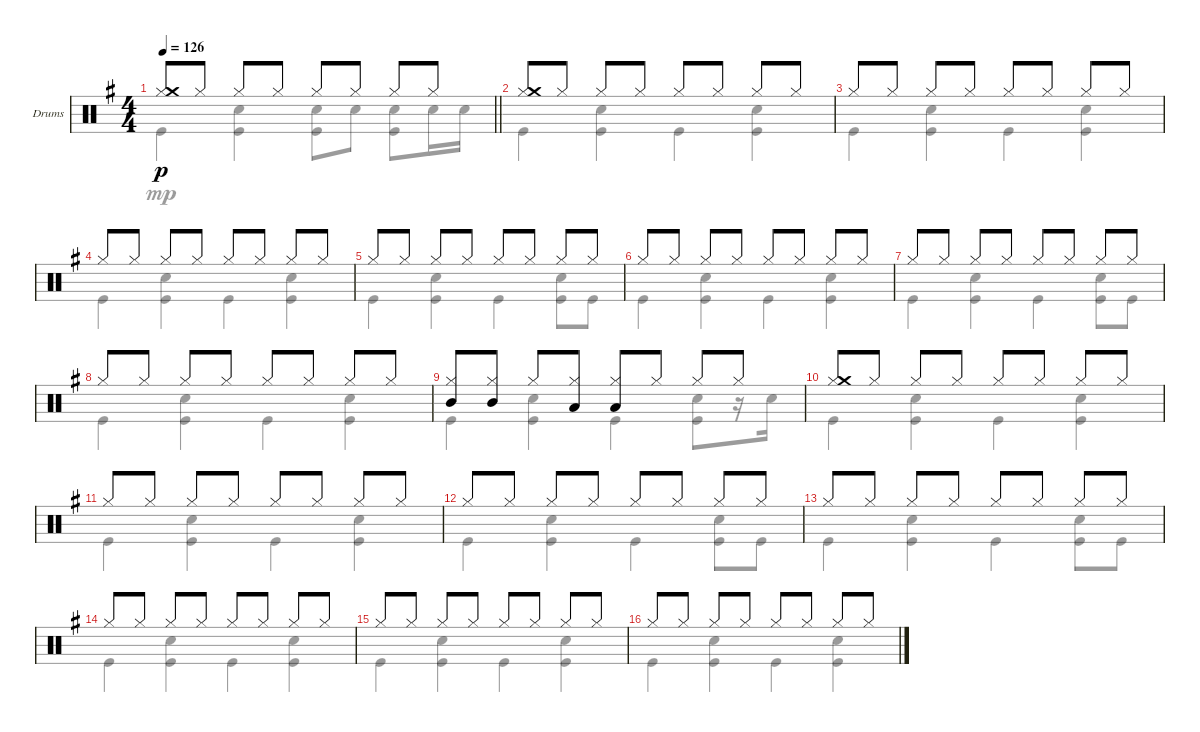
\bracketExtendMode groupsimilarinstruments
\firstSystemTrackNameOrientation horizontal
\otherSystemsTrackNameOrientation horizontal
\track ("Ударные" "Drums") {instrument percussion}
\staff {score}
\articulation defaults
\voice
\ts (4 4)
\tempo 126
\clef neutral
\barLineRight lightlight
\ks eminor
("Hi-Hat (closed)" "Crash medium (hit)").8{dy p} "Hi-Hat (closed)".8 "Hi-Hat (closed)".8 "Hi-Hat (closed)".8 "Hi-Hat (closed)".8 "Hi-Hat (closed)".8 "Hi-Hat (closed)".8 "Hi-Hat (closed)".8 |
\section ("" "")
("Hi-Hat (closed)" "Crash medium (hit)").8 "Hi-Hat (closed)".8 "Hi-Hat (closed)".8 "Hi-Hat (closed)".8 "Hi-Hat (closed)".8 "Hi-Hat (closed)".8 "Hi-Hat (closed)".8 "Hi-Hat (closed)".8 |
"Hi-Hat (closed)".8 "Hi-Hat (closed)".8 "Hi-Hat (closed)".8 "Hi-Hat (closed)".8 "Hi-Hat (closed)".8 "Hi-Hat (closed)".8 "Hi-Hat (closed)".8 "Hi-Hat (closed)".8 |
"Hi-Hat (closed)".8 "Hi-Hat (closed)".8 "Hi-Hat (closed)".8 "Hi-Hat (closed)".8 "Hi-Hat (closed)".8 "Hi-Hat (closed)".8 "Hi-Hat (closed)".8 "Hi-Hat (closed)".8 |
"Hi-Hat (closed)".8 "Hi-Hat (closed)".8 "Hi-Hat (closed)".8 "Hi-Hat (closed)".8 "Hi-Hat (closed)".8 "Hi-Hat (closed)".8 "Hi-Hat (closed)".8 "Hi-Hat (closed)".8 |
"Hi-Hat (closed)".8 "Hi-Hat (closed)".8 "Hi-Hat (closed)".8 "Hi-Hat (closed)".8 "Hi-Hat (closed)".8 "Hi-Hat (closed)".8 "Hi-Hat (closed)".8 "Hi-Hat (closed)".8 |
"Hi-Hat (closed)".8 "Hi-Hat (closed)".8 "Hi-Hat (closed)".8 "Hi-Hat (closed)".8 "Hi-Hat (closed)".8 "Hi-Hat (closed)".8 "Hi-Hat (closed)".8 "Hi-Hat (closed)".8 |
"Hi-Hat (closed)".8 "Hi-Hat (closed)".8 "Hi-Hat (closed)".8 "Hi-Hat (closed)".8 "Hi-Hat (closed)".8 "Hi-Hat (closed)".8 "Hi-Hat (closed)".8 "Hi-Hat (closed)".8 |
("Hi-Hat (closed)" "Mid Tom (hit)").8 ("Hi-Hat (closed)" "Mid Tom (hit)").8 "Hi-Hat (closed)".8 ("Hi-Hat (closed)" "Low Tom (hit)").8 ("Hi-Hat (closed)" "Low Tom (hit)").8 "Hi-Hat (closed)".8 "Hi-Hat (closed)".8 "Hi-Hat (closed)".8 |
("Hi-Hat (closed)" "Crash medium (hit)").8 "Hi-Hat (closed)".8 "Hi-Hat (closed)".8 "Hi-Hat (closed)".8 "Hi-Hat (closed)".8 "Hi-Hat (closed)".8 "Hi-Hat (closed)".8 "Hi-Hat (closed)".8 |
"Hi-Hat (closed)".8 "Hi-Hat (closed)".8 "Hi-Hat (closed)".8 "Hi-Hat (closed)".8 "Hi-Hat (closed)".8 "Hi-Hat (closed)".8 "Hi-Hat (closed)".8 "Hi-Hat (closed)".8 |
"Hi-Hat (closed)".8 "Hi-Hat (closed)".8 "Hi-Hat (closed)".8 "Hi-Hat (closed)".8 "Hi-Hat (closed)".8 "Hi-Hat (closed)".8 "Hi-Hat (closed)".8 "Hi-Hat (closed)".8 |
"Hi-Hat (closed)".8 "Hi-Hat (closed)".8 "Hi-Hat (closed)".8 "Hi-Hat (closed)".8 "Hi-Hat (closed)".8 "Hi-Hat (closed)".8 "Hi-Hat (closed)".8 "Hi-Hat (closed)".8 |
"Hi-Hat (closed)".8 "Hi-Hat (closed)".8 "Hi-Hat (closed)".8 "Hi-Hat (closed)".8 "Hi-Hat (closed)".8 "Hi-Hat (closed)".8 "Hi-Hat (closed)".8 "Hi-Hat (closed)".8 |
"Hi-Hat (closed)".8 "Hi-Hat (closed)".8 "Hi-Hat (closed)".8 "Hi-Hat (closed)".8 "Hi-Hat (closed)".8 "Hi-Hat (closed)".8 "Hi-Hat (closed)".8 "Hi-Hat (closed)".8 |
"Hi-Hat (closed)".8 "Hi-Hat (closed)".8 "Hi-Hat (closed)".8 "Hi-Hat (closed)".8 "Hi-Hat (closed)".8 "Hi-Hat (closed)".8 "Hi-Hat (closed)".8 "Hi-Hat (closed)".8
\voice
\clef neutral
\ottava regular
\simile none
\barLineRight lightlight
\ks eminor "Kick (hit)".4{dy mp}
("Snare (hit) 2" "Kick (hit)").4 ("Snare (hit) 2" "Kick (hit)").8 "Snare (hit) 2".8 ("Snare (hit) 2" "Kick (hit)").8 "Snare (hit) 2".16 "Snare (hit) 2".16 |
"Kick (hit)".4 ("Snare (hit) 2" "Kick (hit)").4 "Kick (hit)".4 ("Snare (hit) 2" "Kick (hit)").4 |
"Kick (hit)".4 ("Snare (hit) 2" "Kick (hit)").4 "Kick (hit)".4 ("Snare (hit) 2" "Kick (hit)").4 |
"Kick (hit)".4 ("Snare (hit) 2" "Kick (hit)").4 "Kick (hit)".4 ("Snare (hit) 2" "Kick (hit)").4 |
"Kick (hit)".4 ("Snare (hit) 2" "Kick (hit)").4 "Kick (hit)".4 ("Snare (hit) 2" "Kick (hit)").8 "Kick (hit)".8 |
"Kick (hit)".4 ("Snare (hit) 2" "Kick (hit)").4 "Kick (hit)".4 ("Snare (hit) 2" "Kick (hit)").4 |
"Kick (hit)".4 ("Snare (hit) 2" "Kick (hit)").4 "Kick (hit)".4 ("Snare (hit) 2" "Kick (hit)").8 "Kick (hit)".8 |
"Kick (hit)".4 ("Snare (hit) 2" "Kick (hit)").4 "Kick (hit)".4 ("Snare (hit) 2" "Kick (hit)").4 |
"Kick (hit)".4 ("Snare (hit) 2" "Kick (hit)").4 "Kick (hit)".4 ("Snare (hit) 2" "Kick (hit)").8 r.16 "Snare (hit) 2".16 |
"Kick (hit)".4 ("Snare (hit) 2" "Kick (hit)").4 "Kick (hit)".4 ("Snare (hit) 2" "Kick (hit)").4 |
"Kick (hit)".4 ("Snare (hit) 2" "Kick (hit)").4 "Kick (hit)".4 ("Snare (hit) 2" "Kick (hit)").4 |
"Kick (hit)".4 ("Snare (hit) 2" "Kick (hit)").4 "Kick (hit)".4 ("Snare (hit) 2" "Kick (hit)").8 "Kick (hit)".8 |
"Kick (hit)".4 ("Snare (hit) 2" "Kick (hit)").4 "Kick (hit)".4 ("Snare (hit) 2" "Kick (hit)").8 "Kick (hit)".8 |
"Kick (hit)".4 ("Snare (hit) 2" "Kick (hit)").4 "Kick (hit)".4 ("Snare (hit) 2" "Kick (hit)").4 |
"Kick (hit)".4 ("Snare (hit) 2" "Kick (hit)").4 "Kick (hit)".4 ("Snare (hit) 2" "Kick (hit)").4 |
"Kick (hit)".4 ("Snare (hit) 2" "Kick (hit)").4 "Kick (hit)".4 ("Snare (hit) 2" "Kick (hit)").4
